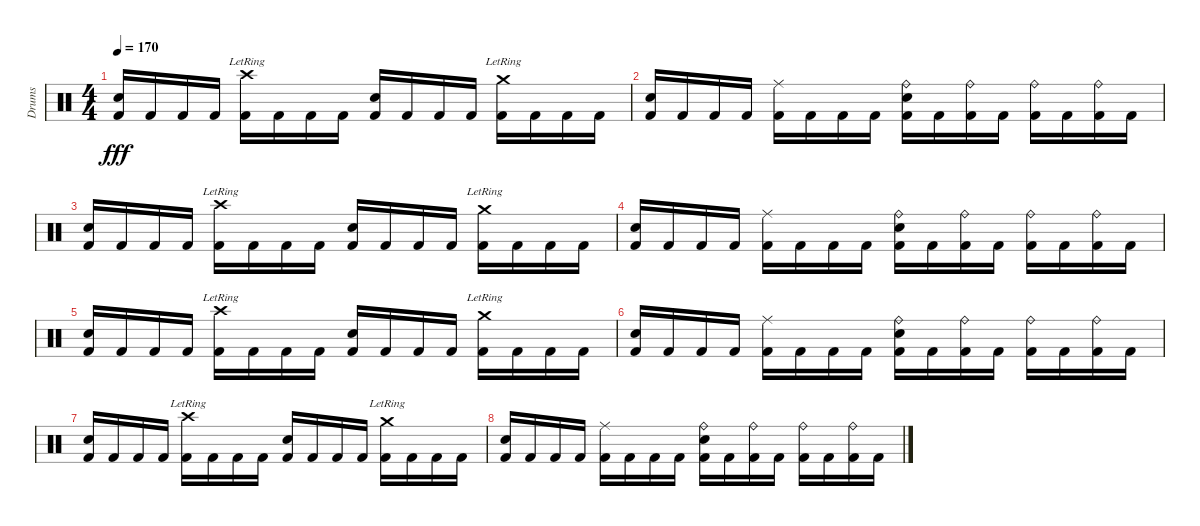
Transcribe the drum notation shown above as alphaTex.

\track ("Drums" "Drums") {instrument percussion}
\staff {score}
\articulation defaults
\ts (4 4)
\tempo 170
\clef neutral
\ks c
("Electric Snare (hit)" "Kick (hit) 2").16{dy fff} "Kick (hit) 2".16 "Kick (hit) 2".16 "Kick (hit) 2".16 ("Crash high (hit)"{lr} "Kick (hit) 2").16 "Kick (hit) 2".16 "Kick (hit) 2".16 "Kick (hit) 2".16 ("Electric Snare (hit)" "Kick (hit) 2").16 "Kick (hit) 2".16 "Kick (hit) 2".16 "Kick (hit) 2".16 ("Crash medium (hit)"{lr} "Kick (hit) 2").16 "Kick (hit) 2".16 "Kick (hit) 2".16 "Kick (hit) 2".16 |
("Electric Snare (hit)" "Kick (hit) 2").16 "Kick (hit) 2".16 "Kick (hit) 2".16 "Kick (hit) 2".16 ("Ride (middle)" "Kick (hit) 2").16 "Kick (hit) 2".16 "Kick (hit) 2".16 "Kick (hit) 2".16 ("Ride (bell)" "Electric Snare (hit)" "Kick (hit) 2").16 "Kick (hit) 2".16 ("Ride (bell)" "Kick (hit) 2").16 "Kick (hit) 2".16 ("Ride (bell)" "Kick (hit) 2").16 "Kick (hit) 2".16 ("Ride (bell)" "Kick (hit) 2").16 "Kick (hit) 2".16 |
("Electric Snare (hit)" "Kick (hit) 2").16 "Kick (hit) 2".16 "Kick (hit) 2".16 "Kick (hit) 2".16 ("Crash high (hit)"{lr} "Kick (hit) 2").16 "Kick (hit) 2".16 "Kick (hit) 2".16 "Kick (hit) 2".16 ("Electric Snare (hit)" "Kick (hit) 2").16 "Kick (hit) 2".16 "Kick (hit) 2".16 "Kick (hit) 2".16 ("Crash medium (hit)"{lr} "Kick (hit) 2").16 "Kick (hit) 2".16 "Kick (hit) 2".16 "Kick (hit) 2".16 |
("Electric Snare (hit)" "Kick (hit) 2").16 "Kick (hit) 2".16 "Kick (hit) 2".16 "Kick (hit) 2".16 ("Ride (middle)" "Kick (hit) 2").16 "Kick (hit) 2".16 "Kick (hit) 2".16 "Kick (hit) 2".16 ("Ride (bell)" "Electric Snare (hit)" "Kick (hit) 2").16 "Kick (hit) 2".16 ("Ride (bell)" "Kick (hit) 2").16 "Kick (hit) 2".16 ("Ride (bell)" "Kick (hit) 2").16 "Kick (hit) 2".16 ("Ride (bell)" "Kick (hit) 2").16 "Kick (hit) 2".16 |
("Electric Snare (hit)" "Kick (hit) 2").16 "Kick (hit) 2".16 "Kick (hit) 2".16 "Kick (hit) 2".16 ("Crash high (hit)"{lr} "Kick (hit) 2").16 "Kick (hit) 2".16 "Kick (hit) 2".16 "Kick (hit) 2".16 ("Electric Snare (hit)" "Kick (hit) 2").16 "Kick (hit) 2".16 "Kick (hit) 2".16 "Kick (hit) 2".16 ("Crash medium (hit)"{lr} "Kick (hit) 2").16 "Kick (hit) 2".16 "Kick (hit) 2".16 "Kick (hit) 2".16 |
("Electric Snare (hit)" "Kick (hit) 2").16 "Kick (hit) 2".16 "Kick (hit) 2".16 "Kick (hit) 2".16 ("Ride (middle)" "Kick (hit) 2").16 "Kick (hit) 2".16 "Kick (hit) 2".16 "Kick (hit) 2".16 ("Ride (bell)" "Electric Snare (hit)" "Kick (hit) 2").16 "Kick (hit) 2".16 ("Ride (bell)" "Kick (hit) 2").16 "Kick (hit) 2".16 ("Ride (bell)" "Kick (hit) 2").16 "Kick (hit) 2".16 ("Ride (bell)" "Kick (hit) 2").16 "Kick (hit) 2".16 |
("Electric Snare (hit)" "Kick (hit) 2").16 "Kick (hit) 2".16 "Kick (hit) 2".16 "Kick (hit) 2".16 ("Crash high (hit)"{lr} "Kick (hit) 2").16 "Kick (hit) 2".16 "Kick (hit) 2".16 "Kick (hit) 2".16 ("Electric Snare (hit)" "Kick (hit) 2").16 "Kick (hit) 2".16 "Kick (hit) 2".16 "Kick (hit) 2".16 ("Crash medium (hit)"{lr} "Kick (hit) 2").16 "Kick (hit) 2".16 "Kick (hit) 2".16 "Kick (hit) 2".16 |
("Electric Snare (hit)" "Kick (hit) 2").16 "Kick (hit) 2".16 "Kick (hit) 2".16 "Kick (hit) 2".16 ("Ride (middle)" "Kick (hit) 2").16 "Kick (hit) 2".16 "Kick (hit) 2".16 "Kick (hit) 2".16 ("Ride (bell)" "Electric Snare (hit)" "Kick (hit) 2").16 "Kick (hit) 2".16 ("Ride (bell)" "Kick (hit) 2").16 "Kick (hit) 2".16 ("Ride (bell)" "Kick (hit) 2").16 "Kick (hit) 2".16 ("Ride (bell)" "Kick (hit) 2").16 "Kick (hit) 2".16
